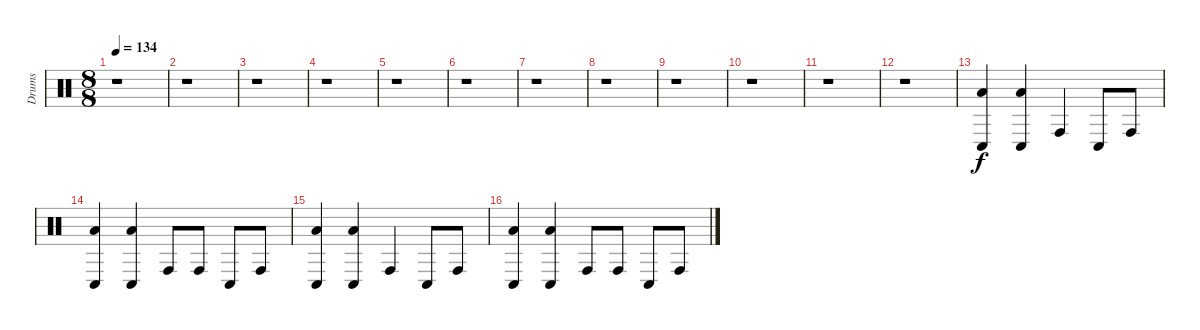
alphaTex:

\track ("Drums" "Drums") {instrument percussion}
\staff {score}
\articulation defaults
\ts (8 8)
\tempo 134
\clef neutral
\ks c
r.1{dy f} |
r.1 |
r.1 |
r.1 |
r.1 |
r.1 |
r.1 |
r.1 |
r.1 |
r.1 |
r.1 |
r.1 |
("Low Tom (hit)" "Conga low (hit)").4 ("Low Tom (hit)" "Conga low (hit)").4 "Conga high (hit)".4 "Conga low (hit)".8 "Conga high (hit)".8 |
("Low Tom (hit)" "Conga low (hit)").4 ("Low Tom (hit)" "Conga low (hit)").4 "Conga high (hit)".8 "Conga high (hit)".8 "Conga low (hit)".8 "Conga high (hit)".8 |
("Low Tom (hit)" "Conga low (hit)").4 ("Low Tom (hit)" "Conga low (hit)").4 "Conga high (hit)".4 "Conga low (hit)".8 "Conga high (hit)".8 |
("Low Tom (hit)" "Conga low (hit)").4 ("Low Tom (hit)" "Conga low (hit)").4 "Conga high (hit)".8 "Conga high (hit)".8 "Conga low (hit)".8 "Conga high (hit)".8
